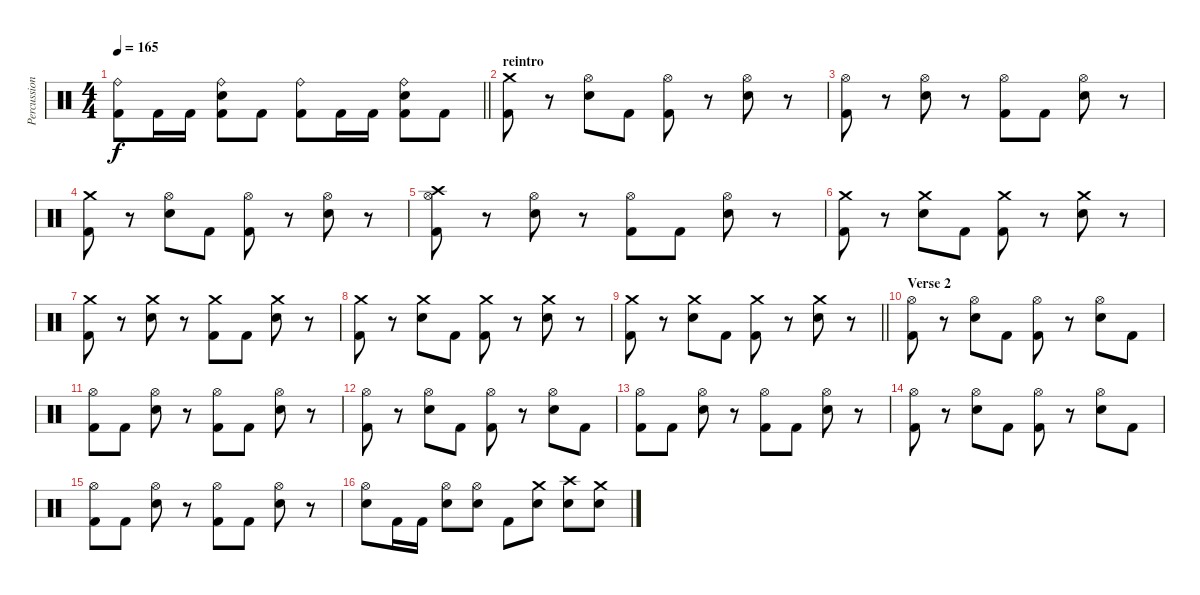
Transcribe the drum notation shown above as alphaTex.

\track ("Percussion" "Percussion") {instrument percussion}
\staff {score}
\articulation defaults
\ts (4 4)
\tempo 165
\clef neutral
\barLineRight lightlight
\ks c
("Ride (bell)" "Kick (hit) 2").8{dy f} "Kick (hit) 2".16 "Kick (hit) 2".16 ("Ride (bell)" "Electric Snare (hit)" "Kick (hit) 2").8 "Kick (hit) 2".8 ("Ride (bell)" "Kick (hit) 2").8 "Kick (hit) 2".16 "Kick (hit) 2".16 ("Ride (bell)" "Electric Snare (hit)" "Kick (hit) 2").8 "Kick (hit) 2".8 |
\section ("" "reintro")
("Crash medium (hit)" "Kick (hit) 2").8 r.8 ("Hi-Hat (open)" "Electric Snare (hit)").8 "Kick (hit) 2".8 ("Hi-Hat (open)" "Kick (hit) 2").8 r.8 ("Hi-Hat (open)" "Electric Snare (hit)").8 r.8 |
("Hi-Hat (open)" "Kick (hit) 2").8 r.8 ("Hi-Hat (open)" "Electric Snare (hit)").8 r.8 ("Hi-Hat (open)" "Kick (hit) 2").8 "Kick (hit) 2".8 ("Hi-Hat (open)" "Electric Snare (hit)").8 r.8 |
("Crash medium (hit)" "Kick (hit) 2").8 r.8 ("Hi-Hat (open)" "Electric Snare (hit)").8 "Kick (hit) 2".8 ("Hi-Hat (open)" "Kick (hit) 2").8 r.8 ("Hi-Hat (open)" "Electric Snare (hit)").8 r.8 |
("Crash high (hit)" "Hi-Hat (open)" "Kick (hit) 2").8 r.8 ("Hi-Hat (open)" "Electric Snare (hit)").8 r.8 ("Hi-Hat (open)" "Kick (hit) 2").8 "Kick (hit) 2".8 ("Hi-Hat (open)" "Electric Snare (hit)").8 r.8 |
("Crash medium (hit)" "Kick (hit) 2").8 r.8 ("Crash medium (hit)" "Electric Snare (hit)").8 "Kick (hit) 2".8 ("Crash medium (hit)" "Kick (hit) 2").8 r.8 ("Crash medium (hit)" "Electric Snare (hit)").8 r.8 |
("Crash medium (hit)" "Kick (hit) 2").8 r.8 ("Crash medium (hit)" "Electric Snare (hit)").8 r.8 ("Crash medium (hit)" "Kick (hit) 2").8 "Kick (hit) 2".8 ("Crash medium (hit)" "Electric Snare (hit)").8 r.8 |
("Crash medium (hit)" "Kick (hit) 2").8 r.8 ("Crash medium (hit)" "Electric Snare (hit)").8 "Kick (hit) 2".8 ("Crash medium (hit)" "Kick (hit) 2").8 r.8 ("Crash medium (hit)" "Electric Snare (hit)").8 r.8 |
\barLineRight lightlight
("Crash medium (hit)" "Kick (hit) 2").8 r.8 ("Crash medium (hit)" "Electric Snare (hit)").8 "Kick (hit) 2".8 ("Crash medium (hit)" "Kick (hit) 2").8 r.8 ("Crash medium (hit)" "Electric Snare (hit)").8 r.8 |
\section ("" "Verse 2")
("Hi-Hat (open)" "Kick (hit) 2").8 r.8 ("Hi-Hat (open)" "Electric Snare (hit)").8 "Kick (hit) 2".8 ("Hi-Hat (open)" "Kick (hit) 2").8 r.8 ("Hi-Hat (open)" "Electric Snare (hit)").8 "Kick (hit) 2".8 |
("Hi-Hat (open)" "Kick (hit) 2").8 "Kick (hit) 2".8 ("Hi-Hat (open)" "Electric Snare (hit)").8 r.8 ("Hi-Hat (open)" "Kick (hit) 2").8 "Kick (hit) 2".8 ("Hi-Hat (open)" "Electric Snare (hit)").8 r.8 |
("Hi-Hat (open)" "Kick (hit) 2").8 r.8 ("Hi-Hat (open)" "Electric Snare (hit)").8 "Kick (hit) 2".8 ("Hi-Hat (open)" "Kick (hit) 2").8 r.8 ("Hi-Hat (open)" "Electric Snare (hit)").8 "Kick (hit) 2".8 |
("Hi-Hat (open)" "Kick (hit) 2").8 "Kick (hit) 2".8 ("Hi-Hat (open)" "Electric Snare (hit)").8 r.8 ("Hi-Hat (open)" "Kick (hit) 2").8 "Kick (hit) 2".8 ("Hi-Hat (open)" "Electric Snare (hit)").8 r.8 |
("Hi-Hat (open)" "Kick (hit) 2").8 r.8 ("Hi-Hat (open)" "Electric Snare (hit)").8 "Kick (hit) 2".8 ("Hi-Hat (open)" "Kick (hit) 2").8 r.8 ("Hi-Hat (open)" "Electric Snare (hit)").8 "Kick (hit) 2".8 |
("Hi-Hat (open)" "Kick (hit) 2").8 "Kick (hit) 2".8 ("Hi-Hat (open)" "Electric Snare (hit)").8 r.8 ("Hi-Hat (open)" "Kick (hit) 2").8 "Kick (hit) 2".8 ("Hi-Hat (open)" "Electric Snare (hit)").8 r.8 |
("Hi-Hat (open)" "Electric Snare (hit)").8 "Kick (hit) 2".16 "Kick (hit) 2".16 ("Hi-Hat (open)" "Electric Snare (hit)").8 ("Hi-Hat (open)" "Electric Snare (hit)").8 "Kick (hit) 2".8 ("Crash medium (hit)" "Electric Snare (hit)").8 ("Crash high (hit)" "Electric Snare (hit)").8 ("Crash medium (hit)" "Electric Snare (hit)").8
